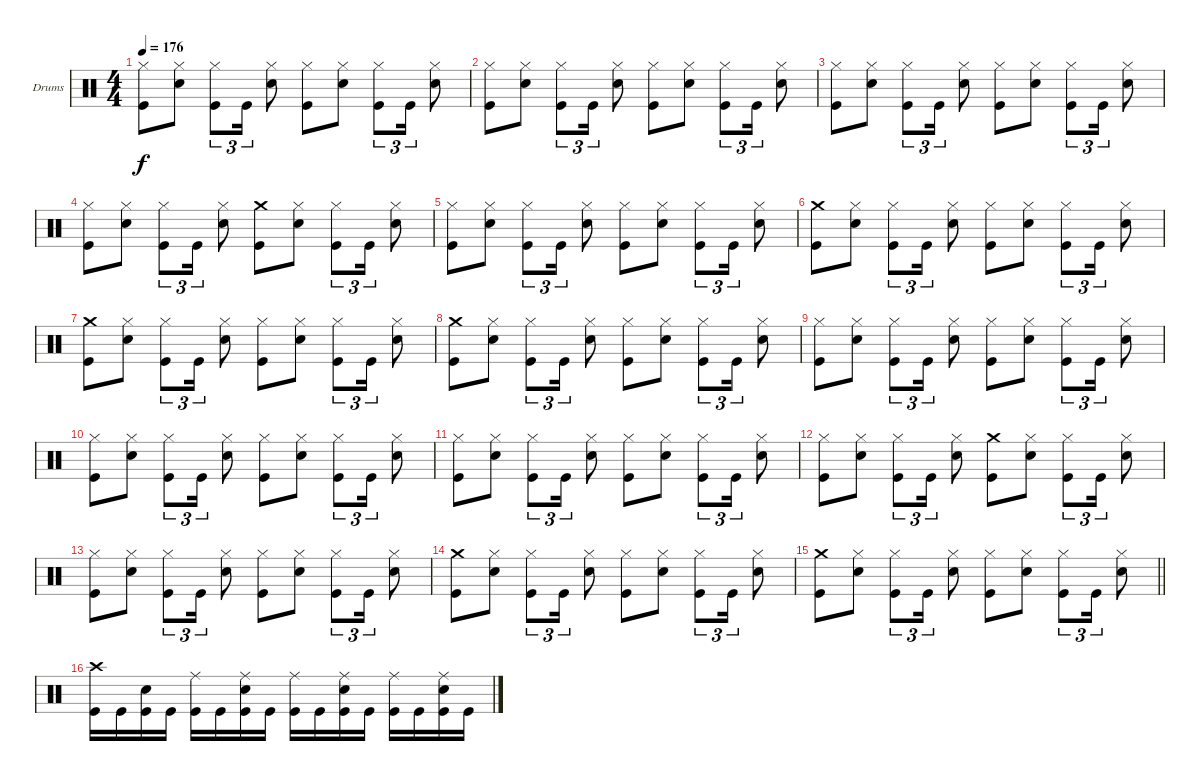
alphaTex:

\bracketExtendMode groupsimilarinstruments
\firstSystemTrackNameOrientation horizontal
\otherSystemsTrackNameOrientation horizontal
\track ("Drums" "Drums") {instrument percussion}
\staff {score}
\articulation defaults
\ts (4 4)
\tempo 176
\clef neutral
\ks c
("Kick (hit)" "Hi-Hat (closed)").8{dy f} ("Snare (hit) 2" "Hi-Hat (closed)").8 ("Kick (hit)" "Hi-Hat (closed)").8{tu (3 2)} "Kick (hit)".16{tu (3 2)} ("Snare (hit) 2" "Hi-Hat (closed)").8 ("Kick (hit)" "Hi-Hat (closed)").8 ("Snare (hit) 2" "Hi-Hat (closed)").8 ("Kick (hit)" "Hi-Hat (closed)").8{tu (3 2)} "Kick (hit)".16{tu (3 2)} ("Snare (hit) 2" "Hi-Hat (closed)").8 |
("Kick (hit)" "Hi-Hat (closed)").8 ("Snare (hit) 2" "Hi-Hat (closed)").8 ("Kick (hit)" "Hi-Hat (closed)").8{tu (3 2)} "Kick (hit)".16{tu (3 2)} ("Snare (hit) 2" "Hi-Hat (closed)").8 ("Kick (hit)" "Hi-Hat (closed)").8 ("Snare (hit) 2" "Hi-Hat (closed)").8 ("Kick (hit)" "Hi-Hat (closed)").8{tu (3 2)} "Kick (hit)".16{tu (3 2)} ("Snare (hit) 2" "Hi-Hat (closed)").8 |
("Kick (hit)" "Hi-Hat (closed)").8 ("Snare (hit) 2" "Hi-Hat (closed)").8 ("Kick (hit)" "Hi-Hat (closed)").8{tu (3 2)} "Kick (hit)".16{tu (3 2)} ("Snare (hit) 2" "Hi-Hat (closed)").8 ("Kick (hit)" "Hi-Hat (closed)").8 ("Snare (hit) 2" "Hi-Hat (closed)").8 ("Kick (hit)" "Hi-Hat (closed)").8{tu (3 2)} "Kick (hit)".16{tu (3 2)} ("Snare (hit) 2" "Hi-Hat (closed)").8 |
("Kick (hit)" "Hi-Hat (closed)").8 ("Snare (hit) 2" "Hi-Hat (closed)").8 ("Kick (hit)" "Hi-Hat (closed)").8{tu (3 2)} "Kick (hit)".16{tu (3 2)} ("Snare (hit) 2" "Hi-Hat (closed)").8 ("Kick (hit)" "Crash medium (hit)").8 ("Snare (hit) 2" "Hi-Hat (closed)").8 ("Kick (hit)" "Hi-Hat (closed)").8{tu (3 2)} "Kick (hit)".16{tu (3 2)} ("Snare (hit) 2" "Hi-Hat (closed)").8 |
("Kick (hit)" "Hi-Hat (closed)").8 ("Snare (hit) 2" "Hi-Hat (closed)").8 ("Kick (hit)" "Hi-Hat (closed)").8{tu (3 2)} "Kick (hit)".16{tu (3 2)} ("Snare (hit) 2" "Hi-Hat (closed)").8 ("Kick (hit)" "Hi-Hat (closed)").8 ("Snare (hit) 2" "Hi-Hat (closed)").8 ("Kick (hit)" "Hi-Hat (closed)").8{tu (3 2)} "Kick (hit)".16{tu (3 2)} ("Snare (hit) 2" "Hi-Hat (closed)").8 |
("Kick (hit)" "Crash medium (hit)").8 ("Snare (hit) 2" "Hi-Hat (closed)").8 ("Kick (hit)" "Hi-Hat (closed)").8{tu (3 2)} "Kick (hit)".16{tu (3 2)} ("Snare (hit) 2" "Hi-Hat (closed)").8 ("Kick (hit)" "Hi-Hat (closed)").8 ("Snare (hit) 2" "Hi-Hat (closed)").8 ("Kick (hit)" "Hi-Hat (closed)").8{tu (3 2)} "Kick (hit)".16{tu (3 2)} ("Snare (hit) 2" "Hi-Hat (closed)").8 |
("Kick (hit)" "Crash medium (hit)").8 ("Snare (hit) 2" "Hi-Hat (closed)").8 ("Kick (hit)" "Hi-Hat (closed)").8{tu (3 2)} "Kick (hit)".16{tu (3 2)} ("Snare (hit) 2" "Hi-Hat (closed)").8 ("Kick (hit)" "Hi-Hat (closed)").8 ("Snare (hit) 2" "Hi-Hat (closed)").8 ("Kick (hit)" "Hi-Hat (closed)").8{tu (3 2)} "Kick (hit)".16{tu (3 2)} ("Snare (hit) 2" "Hi-Hat (closed)").8 |
("Kick (hit)" "Crash medium (hit)").8 ("Snare (hit) 2" "Hi-Hat (closed)").8 ("Kick (hit)" "Hi-Hat (closed)").8{tu (3 2)} "Kick (hit)".16{tu (3 2)} ("Snare (hit) 2" "Hi-Hat (closed)").8 ("Kick (hit)" "Hi-Hat (closed)").8 ("Snare (hit) 2" "Hi-Hat (closed)").8 ("Kick (hit)" "Hi-Hat (closed)").8{tu (3 2)} "Kick (hit)".16{tu (3 2)} ("Snare (hit) 2" "Hi-Hat (closed)").8 |
("Kick (hit)" "Hi-Hat (closed)").8 ("Snare (hit) 2" "Hi-Hat (closed)").8 ("Kick (hit)" "Hi-Hat (closed)").8{tu (3 2)} "Kick (hit)".16{tu (3 2)} ("Snare (hit) 2" "Hi-Hat (closed)").8 ("Kick (hit)" "Hi-Hat (closed)").8 ("Snare (hit) 2" "Hi-Hat (closed)").8 ("Kick (hit)" "Hi-Hat (closed)").8{tu (3 2)} "Kick (hit)".16{tu (3 2)} ("Snare (hit) 2" "Hi-Hat (closed)").8 |
("Kick (hit)" "Hi-Hat (closed)").8 ("Snare (hit) 2" "Hi-Hat (closed)").8 ("Kick (hit)" "Hi-Hat (closed)").8{tu (3 2)} "Kick (hit)".16{tu (3 2)} ("Snare (hit) 2" "Hi-Hat (closed)").8 ("Kick (hit)" "Hi-Hat (closed)").8 ("Snare (hit) 2" "Hi-Hat (closed)").8 ("Kick (hit)" "Hi-Hat (closed)").8{tu (3 2)} "Kick (hit)".16{tu (3 2)} ("Snare (hit) 2" "Hi-Hat (closed)").8 |
("Kick (hit)" "Hi-Hat (closed)").8 ("Snare (hit) 2" "Hi-Hat (closed)").8 ("Kick (hit)" "Hi-Hat (closed)").8{tu (3 2)} "Kick (hit)".16{tu (3 2)} ("Snare (hit) 2" "Hi-Hat (closed)").8 ("Kick (hit)" "Hi-Hat (closed)").8 ("Snare (hit) 2" "Hi-Hat (closed)").8 ("Kick (hit)" "Hi-Hat (closed)").8{tu (3 2)} "Kick (hit)".16{tu (3 2)} ("Snare (hit) 2" "Hi-Hat (closed)").8 |
("Kick (hit)" "Hi-Hat (closed)").8 ("Snare (hit) 2" "Hi-Hat (closed)").8 ("Kick (hit)" "Hi-Hat (closed)").8{tu (3 2)} "Kick (hit)".16{tu (3 2)} ("Snare (hit) 2" "Hi-Hat (closed)").8 ("Kick (hit)" "Crash medium (hit)").8 ("Snare (hit) 2" "Hi-Hat (closed)").8 ("Kick (hit)" "Hi-Hat (closed)").8{tu (3 2)} "Kick (hit)".16{tu (3 2)} ("Snare (hit) 2" "Hi-Hat (closed)").8 |
("Kick (hit)" "Hi-Hat (closed)").8 ("Snare (hit) 2" "Hi-Hat (closed)").8 ("Kick (hit)" "Hi-Hat (closed)").8{tu (3 2)} "Kick (hit)".16{tu (3 2)} ("Snare (hit) 2" "Hi-Hat (closed)").8 ("Kick (hit)" "Hi-Hat (closed)").8 ("Snare (hit) 2" "Hi-Hat (closed)").8 ("Kick (hit)" "Hi-Hat (closed)").8{tu (3 2)} "Kick (hit)".16{tu (3 2)} ("Snare (hit) 2" "Hi-Hat (closed)").8 |
("Kick (hit)" "Crash medium (hit)").8 ("Snare (hit) 2" "Hi-Hat (closed)").8 ("Kick (hit)" "Hi-Hat (closed)").8{tu (3 2)} "Kick (hit)".16{tu (3 2)} ("Snare (hit) 2" "Hi-Hat (closed)").8 ("Kick (hit)" "Hi-Hat (closed)").8 ("Snare (hit) 2" "Hi-Hat (closed)").8 ("Kick (hit)" "Hi-Hat (closed)").8{tu (3 2)} "Kick (hit)".16{tu (3 2)} ("Snare (hit) 2" "Hi-Hat (closed)").8 |
\barLineRight lightlight
("Kick (hit)" "Crash medium (hit)").8 ("Snare (hit) 2" "Hi-Hat (closed)").8 ("Kick (hit)" "Hi-Hat (closed)").8{tu (3 2)} "Kick (hit)".16{tu (3 2)} ("Snare (hit) 2" "Hi-Hat (closed)").8 ("Kick (hit)" "Hi-Hat (closed)").8 ("Snare (hit) 2" "Hi-Hat (closed)").8 ("Kick (hit)" "Hi-Hat (closed)").8{tu (3 2)} "Kick (hit)".16{tu (3 2)} ("Snare (hit) 2" "Hi-Hat (closed)").8 |
("Kick (hit)" "Crash high (hit)").16 "Kick (hit)".16 ("Snare (hit) 2" "Kick (hit)").16 "Kick (hit)".16 ("Kick (hit)" "Ride (middle)").16 "Kick (hit)".16 ("Snare (hit) 2" "Ride (middle)" "Kick (hit)").16 "Kick (hit)".16 ("Kick (hit)" "Ride (middle)").16 "Kick (hit)".16 ("Snare (hit) 2" "Ride (middle)" "Kick (hit)").16 "Kick (hit)".16 ("Kick (hit)" "Ride (middle)").16 "Kick (hit)".16 ("Snare (hit) 2" "Ride (middle)" "Kick (hit)").16 "Kick (hit)".16
